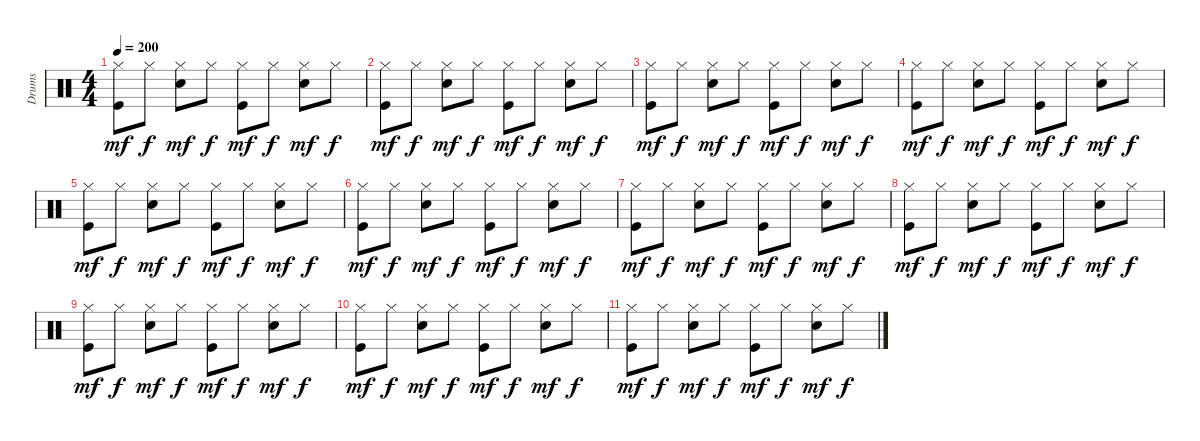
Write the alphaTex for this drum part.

\track ("Drums" "Drums") {instrument percussion}
\staff {score}
\articulation defaults
\ts (4 4)
\tempo 200
\clef neutral
\ks c
("Hi-Hat (closed)" "Kick (hit)").8{dy mf} "Hi-Hat (closed)".8{dy f} ("Hi-Hat (closed)" "Electric Snare (hit)").8{dy mf} "Hi-Hat (closed)".8{dy f} ("Hi-Hat (closed)" "Kick (hit)").8{dy mf} "Hi-Hat (closed)".8{dy f} ("Hi-Hat (closed)" "Electric Snare (hit)").8{dy mf} "Hi-Hat (closed)".8{dy f} |
("Hi-Hat (closed)" "Kick (hit)").8{dy mf} "Hi-Hat (closed)".8{dy f} ("Hi-Hat (closed)" "Electric Snare (hit)").8{dy mf} "Hi-Hat (closed)".8{dy f} ("Hi-Hat (closed)" "Kick (hit)").8{dy mf} "Hi-Hat (closed)".8{dy f} ("Hi-Hat (closed)" "Electric Snare (hit)").8{dy mf} "Hi-Hat (closed)".8{dy f} |
("Hi-Hat (closed)" "Kick (hit)").8{dy mf} "Hi-Hat (closed)".8{dy f} ("Hi-Hat (closed)" "Electric Snare (hit)").8{dy mf} "Hi-Hat (closed)".8{dy f} ("Hi-Hat (closed)" "Kick (hit)").8{dy mf} "Hi-Hat (closed)".8{dy f} ("Hi-Hat (closed)" "Electric Snare (hit)").8{dy mf} "Hi-Hat (closed)".8{dy f} |
("Hi-Hat (closed)" "Kick (hit)").8{dy mf} "Hi-Hat (closed)".8{dy f} ("Hi-Hat (closed)" "Electric Snare (hit)").8{dy mf} "Hi-Hat (closed)".8{dy f} ("Hi-Hat (closed)" "Kick (hit)").8{dy mf} "Hi-Hat (closed)".8{dy f} ("Hi-Hat (closed)" "Electric Snare (hit)").8{dy mf} "Hi-Hat (closed)".8{dy f} |
("Hi-Hat (closed)" "Kick (hit)").8{dy mf} "Hi-Hat (closed)".8{dy f} ("Hi-Hat (closed)" "Electric Snare (hit)").8{dy mf} "Hi-Hat (closed)".8{dy f} ("Hi-Hat (closed)" "Kick (hit)").8{dy mf} "Hi-Hat (closed)".8{dy f} ("Hi-Hat (closed)" "Electric Snare (hit)").8{dy mf} "Hi-Hat (closed)".8{dy f} |
("Hi-Hat (closed)" "Kick (hit)").8{dy mf} "Hi-Hat (closed)".8{dy f} ("Hi-Hat (closed)" "Electric Snare (hit)").8{dy mf} "Hi-Hat (closed)".8{dy f} ("Hi-Hat (closed)" "Kick (hit)").8{dy mf} "Hi-Hat (closed)".8{dy f} ("Hi-Hat (closed)" "Electric Snare (hit)").8{dy mf} "Hi-Hat (closed)".8{dy f} |
("Hi-Hat (closed)" "Kick (hit)").8{dy mf} "Hi-Hat (closed)".8{dy f} ("Hi-Hat (closed)" "Electric Snare (hit)").8{dy mf} "Hi-Hat (closed)".8{dy f} ("Hi-Hat (closed)" "Kick (hit)").8{dy mf} "Hi-Hat (closed)".8{dy f} ("Hi-Hat (closed)" "Electric Snare (hit)").8{dy mf} "Hi-Hat (closed)".8{dy f} |
("Hi-Hat (closed)" "Kick (hit)").8{dy mf} "Hi-Hat (closed)".8{dy f} ("Hi-Hat (closed)" "Electric Snare (hit)").8{dy mf} "Hi-Hat (closed)".8{dy f} ("Hi-Hat (closed)" "Kick (hit)").8{dy mf} "Hi-Hat (closed)".8{dy f} ("Hi-Hat (closed)" "Electric Snare (hit)").8{dy mf} "Hi-Hat (closed)".8{dy f} |
("Hi-Hat (closed)" "Kick (hit)").8{dy mf} "Hi-Hat (closed)".8{dy f} ("Hi-Hat (closed)" "Electric Snare (hit)").8{dy mf} "Hi-Hat (closed)".8{dy f} ("Hi-Hat (closed)" "Kick (hit)").8{dy mf} "Hi-Hat (closed)".8{dy f} ("Hi-Hat (closed)" "Electric Snare (hit)").8{dy mf} "Hi-Hat (closed)".8{dy f} |
("Hi-Hat (closed)" "Kick (hit)").8{dy mf} "Hi-Hat (closed)".8{dy f} ("Hi-Hat (closed)" "Electric Snare (hit)").8{dy mf} "Hi-Hat (closed)".8{dy f} ("Hi-Hat (closed)" "Kick (hit)").8{dy mf} "Hi-Hat (closed)".8{dy f} ("Hi-Hat (closed)" "Electric Snare (hit)").8{dy mf} "Hi-Hat (closed)".8{dy f} |
("Hi-Hat (closed)" "Kick (hit)").8{dy mf} "Hi-Hat (closed)".8{dy f} ("Hi-Hat (closed)" "Electric Snare (hit)").8{dy mf} "Hi-Hat (closed)".8{dy f} ("Hi-Hat (closed)" "Kick (hit)").8{dy mf} "Hi-Hat (closed)".8{dy f} ("Hi-Hat (closed)" "Electric Snare (hit)").8{dy mf} "Hi-Hat (closed)".8{dy f}
